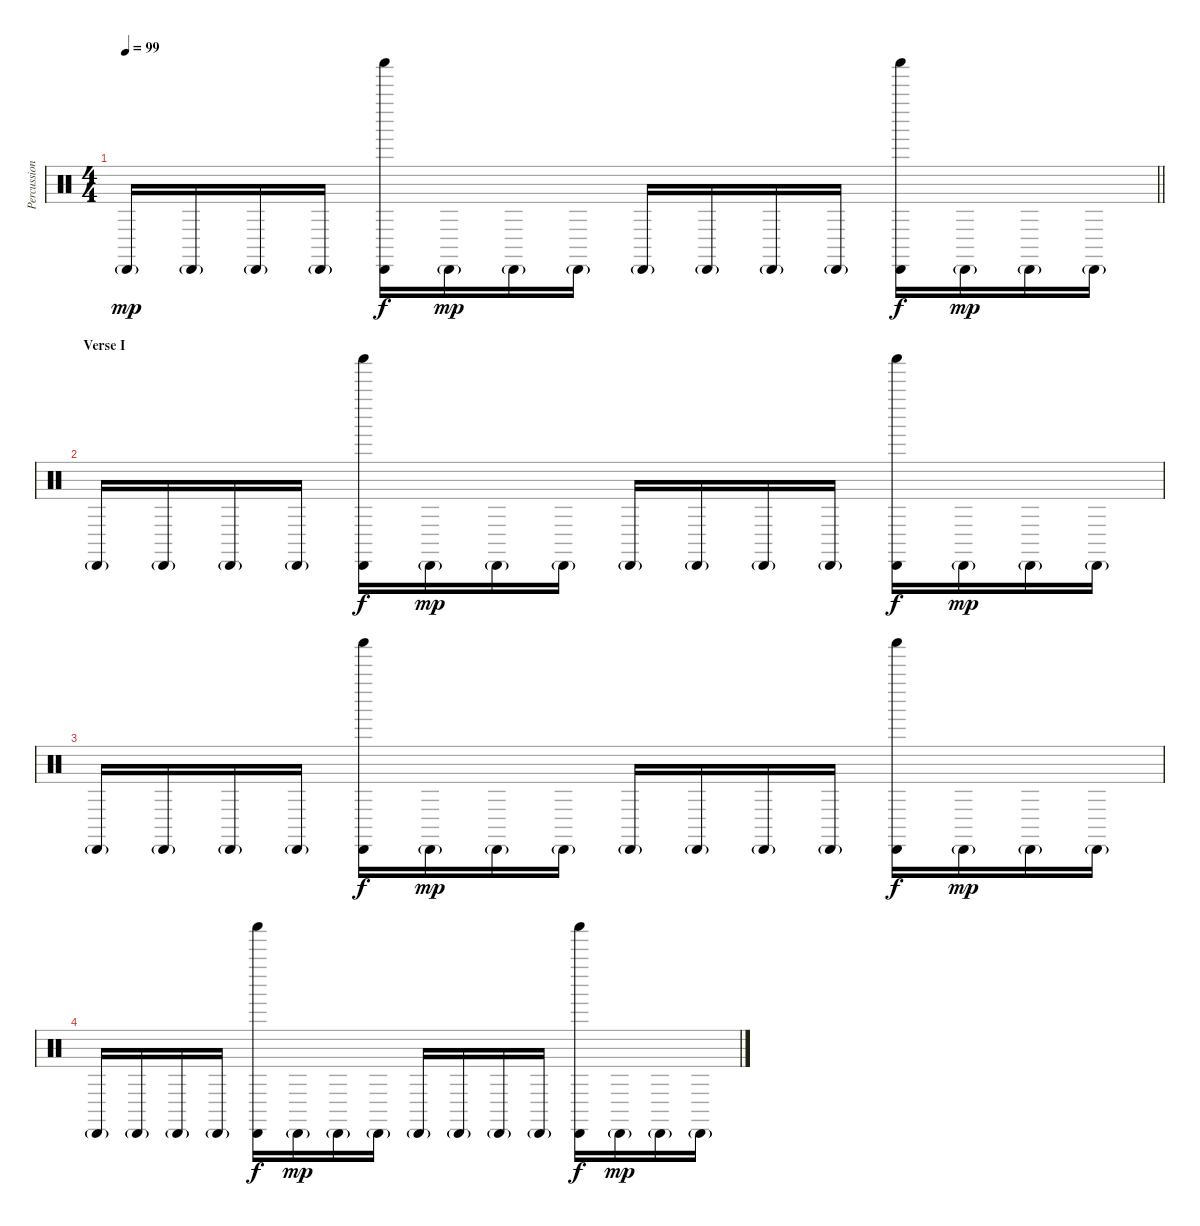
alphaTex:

\track ("Percussion" "Percussion") {instrument percussion}
\staff {score}
\articulation defaults
\ts (4 4)
\tempo 99
\clef neutral
\barLineRight lightlight
\ks c "Cabasa (hit)"{g}.16{dy mp} "Cabasa (hit)"{g}.16 "Cabasa (hit)"{g}.16 "Cabasa (hit)"{g}.16
("Cabasa (hit)" "Shaker (hit)").16{dy f} "Cabasa (hit)"{g}.16{dy mp} "Cabasa (hit)"{g}.16 "Cabasa (hit)"{g}.16 "Cabasa (hit)"{g}.16 "Cabasa (hit)"{g}.16 "Cabasa (hit)"{g}.16 "Cabasa (hit)"{g}.16 ("Cabasa (hit)" "Shaker (hit)").16{dy f} "Cabasa (hit)"{g}.16{dy mp} "Cabasa (hit)"{g}.16 "Cabasa (hit)"{g}.16 |
\section ("" "Verse I")
"Cabasa (hit)"{g}.16 "Cabasa (hit)"{g}.16 "Cabasa (hit)"{g}.16 "Cabasa (hit)"{g}.16 ("Cabasa (hit)" "Shaker (hit)").16{dy f} "Cabasa (hit)"{g}.16{dy mp} "Cabasa (hit)"{g}.16 "Cabasa (hit)"{g}.16 "Cabasa (hit)"{g}.16 "Cabasa (hit)"{g}.16 "Cabasa (hit)"{g}.16 "Cabasa (hit)"{g}.16 ("Cabasa (hit)" "Shaker (hit)").16{dy f} "Cabasa (hit)"{g}.16{dy mp} "Cabasa (hit)"{g}.16 "Cabasa (hit)"{g}.16 |
"Cabasa (hit)"{g}.16 "Cabasa (hit)"{g}.16 "Cabasa (hit)"{g}.16 "Cabasa (hit)"{g}.16 ("Cabasa (hit)" "Shaker (hit)").16{dy f} "Cabasa (hit)"{g}.16{dy mp} "Cabasa (hit)"{g}.16 "Cabasa (hit)"{g}.16 "Cabasa (hit)"{g}.16 "Cabasa (hit)"{g}.16 "Cabasa (hit)"{g}.16 "Cabasa (hit)"{g}.16 ("Cabasa (hit)" "Shaker (hit)").16{dy f} "Cabasa (hit)"{g}.16{dy mp} "Cabasa (hit)"{g}.16 "Cabasa (hit)"{g}.16 |
"Cabasa (hit)"{g}.16 "Cabasa (hit)"{g}.16 "Cabasa (hit)"{g}.16 "Cabasa (hit)"{g}.16 ("Cabasa (hit)" "Shaker (hit)").16{dy f} "Cabasa (hit)"{g}.16{dy mp} "Cabasa (hit)"{g}.16 "Cabasa (hit)"{g}.16 "Cabasa (hit)"{g}.16 "Cabasa (hit)"{g}.16 "Cabasa (hit)"{g}.16 "Cabasa (hit)"{g}.16 ("Cabasa (hit)" "Shaker (hit)").16{dy f} "Cabasa (hit)"{g}.16{dy mp} "Cabasa (hit)"{g}.16 "Cabasa (hit)"{g}.16
